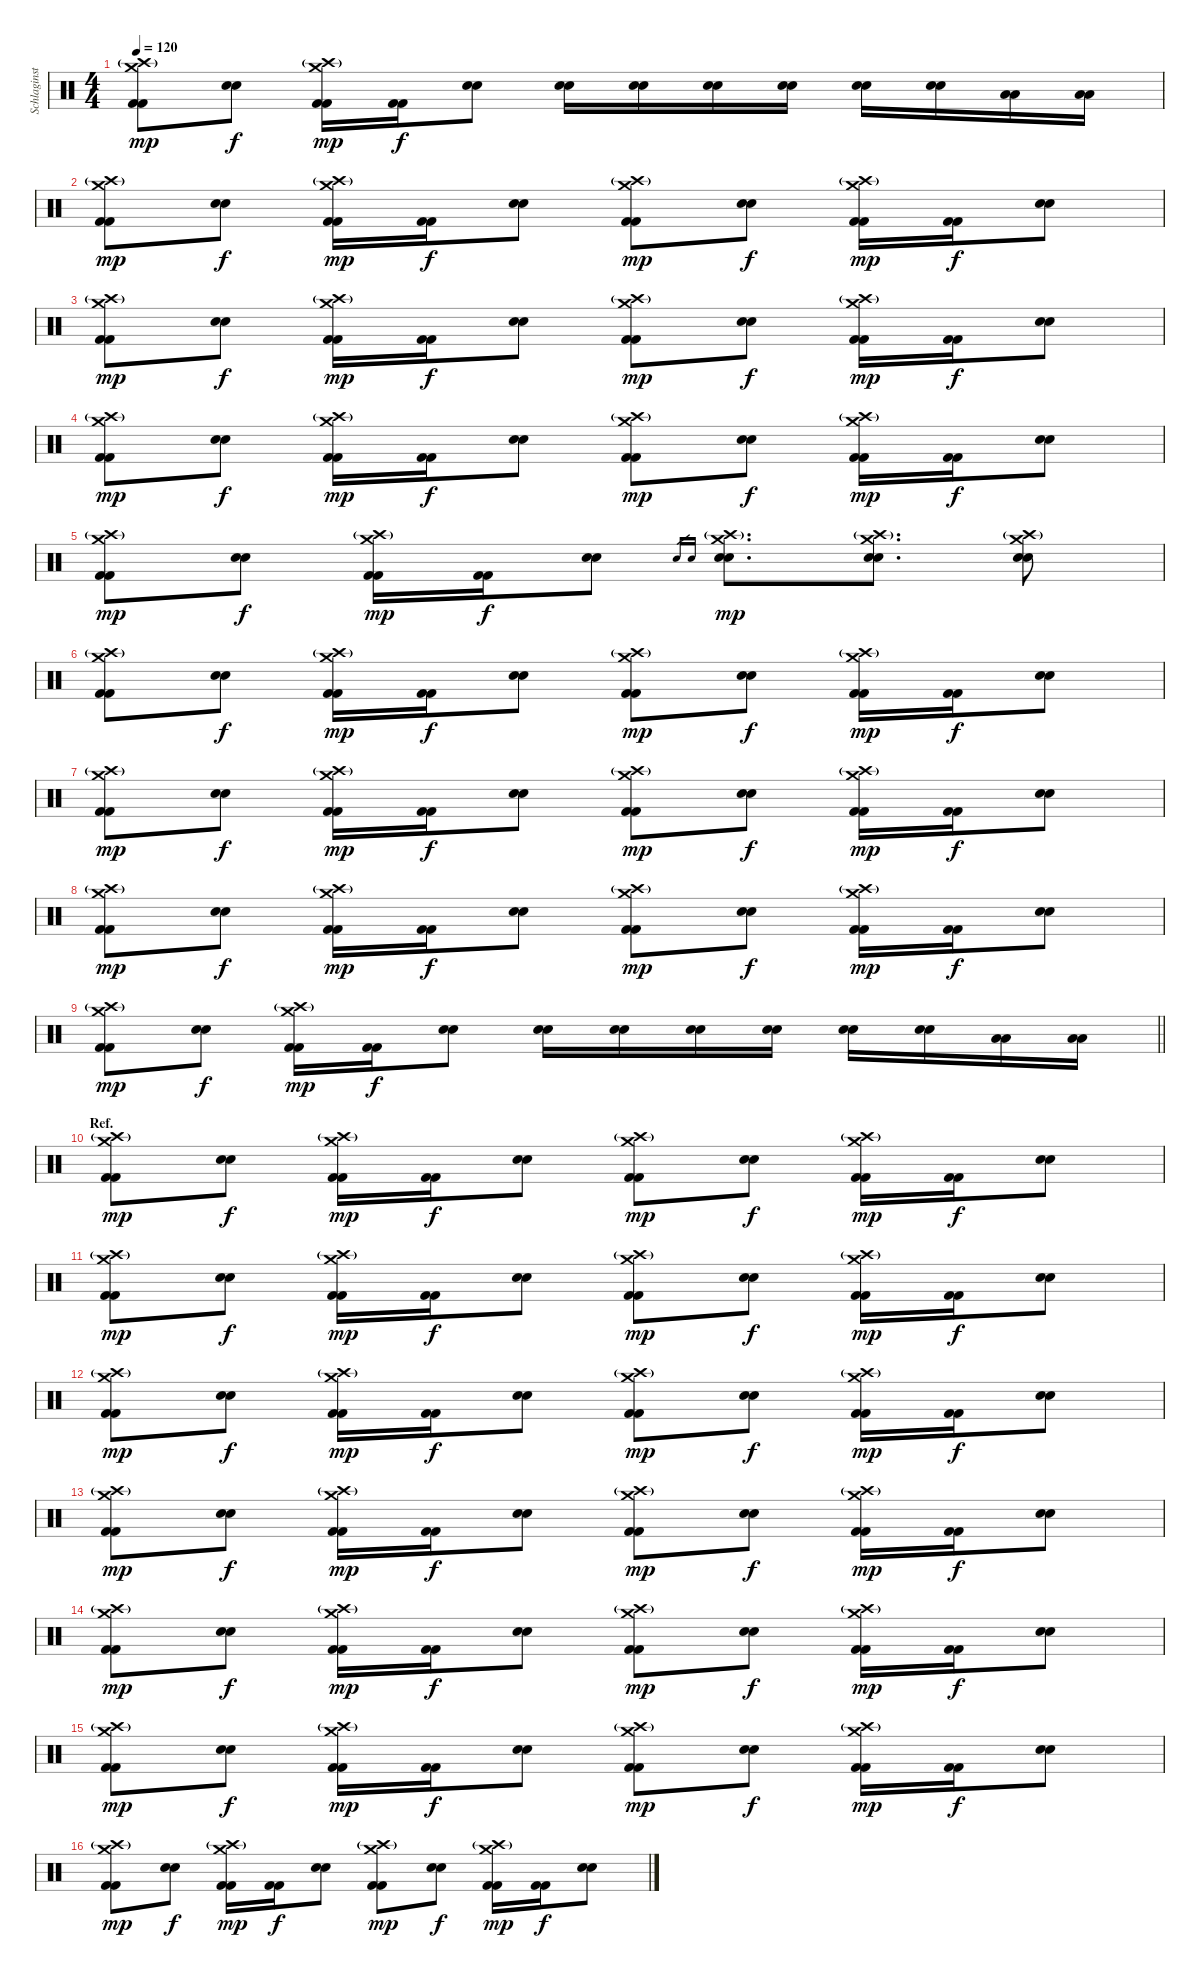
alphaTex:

\track ("Schlaginstrumente - Auswahl" "Schlaginst") {instrument percussion}
\staff {score}
\articulation defaults
\ts (4 4)
\tempo 120
\clef neutral
\ks c
("Crash high (hit)"{g} "Crash medium (hit)" "Kick (hit) 2" "Kick (hit) 2").8{dy mp} ("Electric Snare (hit)" "Electric Snare (hit)").8{dy f} ("Crash high (hit)"{g} "Crash medium (hit)" "Kick (hit) 2" "Kick (hit) 2").16{dy mp} ("Kick (hit) 2" "Kick (hit) 2").16{dy f} ("Electric Snare (hit)" "Electric Snare (hit)").8 ("Electric Snare (hit)" "Electric Snare (hit)").16 ("Electric Snare (hit)" "Electric Snare (hit)").16 ("Electric Snare (hit)" "Electric Snare (hit)").16 ("Electric Snare (hit)" "Electric Snare (hit)").16 ("Snare (hit) 2" "Snare (hit) 2").16 ("Snare (hit) 2" "Snare (hit) 2").16 ("Low Tom (hit)" "Low Tom (hit)").16 ("Low Tom (hit)" "Low Tom (hit)").16 |
("Crash high (hit)"{g} "Crash medium (hit)" "Kick (hit) 2" "Kick (hit) 2").8{dy mp} ("Electric Snare (hit)" "Electric Snare (hit)").8{dy f} ("Crash high (hit)"{g} "Crash medium (hit)" "Kick (hit) 2" "Kick (hit) 2").16{dy mp} ("Kick (hit) 2" "Kick (hit) 2").16{dy f} ("Electric Snare (hit)" "Electric Snare (hit)").8 ("Crash high (hit)"{g} "Crash medium (hit)" "Kick (hit) 2" "Kick (hit) 2").8{dy mp} ("Electric Snare (hit)" "Electric Snare (hit)").8{dy f} ("Crash high (hit)"{g} "Crash medium (hit)" "Kick (hit) 2" "Kick (hit) 2").16{dy mp} ("Kick (hit) 2" "Kick (hit) 2").16{dy f} ("Electric Snare (hit)" "Electric Snare (hit)").8 |
("Crash high (hit)"{g} "Crash medium (hit)" "Kick (hit) 2" "Kick (hit) 2").8{dy mp} ("Electric Snare (hit)" "Electric Snare (hit)").8{dy f} ("Crash high (hit)"{g} "Crash medium (hit)" "Kick (hit) 2" "Kick (hit) 2").16{dy mp} ("Kick (hit) 2" "Kick (hit) 2").16{dy f} ("Electric Snare (hit)" "Electric Snare (hit)").8 ("Crash high (hit)"{g} "Crash medium (hit)" "Kick (hit) 2" "Kick (hit) 2").8{dy mp} ("Electric Snare (hit)" "Electric Snare (hit)").8{dy f} ("Crash high (hit)"{g} "Crash medium (hit)" "Kick (hit) 2" "Kick (hit) 2").16{dy mp} ("Kick (hit) 2" "Kick (hit) 2").16{dy f} ("Electric Snare (hit)" "Electric Snare (hit)").8 |
("Crash high (hit)"{g} "Crash medium (hit)" "Kick (hit) 2" "Kick (hit) 2").8{dy mp} ("Electric Snare (hit)" "Electric Snare (hit)").8{dy f} ("Crash high (hit)"{g} "Crash medium (hit)" "Kick (hit) 2" "Kick (hit) 2").16{dy mp} ("Kick (hit) 2" "Kick (hit) 2").16{dy f} ("Electric Snare (hit)" "Electric Snare (hit)").8 ("Crash high (hit)"{g} "Crash medium (hit)" "Kick (hit) 2" "Kick (hit) 2").8{dy mp} ("Electric Snare (hit)" "Electric Snare (hit)").8{dy f} ("Crash high (hit)"{g} "Crash medium (hit)" "Kick (hit) 2" "Kick (hit) 2").16{dy mp} ("Kick (hit) 2" "Kick (hit) 2").16{dy f} ("Electric Snare (hit)" "Electric Snare (hit)").8 |
("Crash high (hit)"{g} "Crash medium (hit)" "Kick (hit) 2" "Kick (hit) 2").8{dy mp} ("Electric Snare (hit)" "Electric Snare (hit)").8{dy f} ("Crash high (hit)"{g} "Crash medium (hit)" "Kick (hit) 2" "Kick (hit) 2").16{dy mp} ("Kick (hit) 2" "Kick (hit) 2").16{dy f} ("Electric Snare (hit)" "Electric Snare (hit)").8 "Electric Snare (hit)".16{gr} "Electric Snare (hit)".16{gr} ("Crash high (hit)"{g} "Crash medium (hit)" "Electric Snare (hit)" "Electric Snare (hit)").8{d dy mp} ("Crash high (hit)"{g} "Crash medium (hit)" "Electric Snare (hit)" "Electric Snare (hit)").8{d} ("Crash high (hit)"{g} "Crash medium (hit)" "Electric Snare (hit)" "Electric Snare (hit)").8 |
("Crash high (hit)"{g} "Crash medium (hit)" "Kick (hit) 2" "Kick (hit) 2").8 ("Electric Snare (hit)" "Electric Snare (hit)").8{dy f} ("Crash high (hit)"{g} "Crash medium (hit)" "Kick (hit) 2" "Kick (hit) 2").16{dy mp} ("Kick (hit) 2" "Kick (hit) 2").16{dy f} ("Electric Snare (hit)" "Electric Snare (hit)").8 ("Crash high (hit)"{g} "Crash medium (hit)" "Kick (hit) 2" "Kick (hit) 2").8{dy mp} ("Electric Snare (hit)" "Electric Snare (hit)").8{dy f} ("Crash high (hit)"{g} "Crash medium (hit)" "Kick (hit) 2" "Kick (hit) 2").16{dy mp} ("Kick (hit) 2" "Kick (hit) 2").16{dy f} ("Electric Snare (hit)" "Electric Snare (hit)").8 |
("Crash high (hit)"{g} "Crash medium (hit)" "Kick (hit) 2" "Kick (hit) 2").8{dy mp} ("Electric Snare (hit)" "Electric Snare (hit)").8{dy f} ("Crash high (hit)"{g} "Crash medium (hit)" "Kick (hit) 2" "Kick (hit) 2").16{dy mp} ("Kick (hit) 2" "Kick (hit) 2").16{dy f} ("Electric Snare (hit)" "Electric Snare (hit)").8 ("Crash high (hit)"{g} "Crash medium (hit)" "Kick (hit) 2" "Kick (hit) 2").8{dy mp} ("Electric Snare (hit)" "Electric Snare (hit)").8{dy f} ("Crash high (hit)"{g} "Crash medium (hit)" "Kick (hit) 2" "Kick (hit) 2").16{dy mp} ("Kick (hit) 2" "Kick (hit) 2").16{dy f} ("Electric Snare (hit)" "Electric Snare (hit)").8 |
("Crash high (hit)"{g} "Crash medium (hit)" "Kick (hit) 2" "Kick (hit) 2").8{dy mp} ("Electric Snare (hit)" "Electric Snare (hit)").8{dy f} ("Crash high (hit)"{g} "Crash medium (hit)" "Kick (hit) 2" "Kick (hit) 2").16{dy mp} ("Kick (hit) 2" "Kick (hit) 2").16{dy f} ("Electric Snare (hit)" "Electric Snare (hit)").8 ("Crash high (hit)"{g} "Crash medium (hit)" "Kick (hit) 2" "Kick (hit) 2").8{dy mp} ("Electric Snare (hit)" "Electric Snare (hit)").8{dy f} ("Crash high (hit)"{g} "Crash medium (hit)" "Kick (hit) 2" "Kick (hit) 2").16{dy mp} ("Kick (hit) 2" "Kick (hit) 2").16{dy f} ("Electric Snare (hit)" "Electric Snare (hit)").8 |
\barLineRight lightlight
("Crash high (hit)"{g} "Crash medium (hit)" "Kick (hit) 2" "Kick (hit) 2").8{dy mp} ("Electric Snare (hit)" "Electric Snare (hit)").8{dy f} ("Crash high (hit)"{g} "Crash medium (hit)" "Kick (hit) 2" "Kick (hit) 2").16{dy mp} ("Kick (hit) 2" "Kick (hit) 2").16{dy f} ("Electric Snare (hit)" "Electric Snare (hit)").8 ("Electric Snare (hit)" "Electric Snare (hit)").16 ("Electric Snare (hit)" "Electric Snare (hit)").16 ("Electric Snare (hit)" "Electric Snare (hit)").16 ("Electric Snare (hit)" "Electric Snare (hit)").16 ("Snare (hit) 2" "Snare (hit) 2").16 ("Snare (hit) 2" "Snare (hit) 2").16 ("Low Tom (hit)" "Low Tom (hit)").16 ("Low Tom (hit)" "Low Tom (hit)").16 |
\section ("" "Ref.")
("Crash high (hit)"{g} "Crash medium (hit)" "Kick (hit) 2" "Kick (hit) 2").8{dy mp} ("Electric Snare (hit)" "Electric Snare (hit)").8{dy f} ("Crash high (hit)"{g} "Crash medium (hit)" "Kick (hit) 2" "Kick (hit) 2").16{dy mp} ("Kick (hit) 2" "Kick (hit) 2").16{dy f} ("Electric Snare (hit)" "Electric Snare (hit)").8 ("Crash high (hit)"{g} "Crash medium (hit)" "Kick (hit) 2" "Kick (hit) 2").8{dy mp} ("Electric Snare (hit)" "Electric Snare (hit)").8{dy f} ("Crash high (hit)"{g} "Crash medium (hit)" "Kick (hit) 2" "Kick (hit) 2").16{dy mp} ("Kick (hit) 2" "Kick (hit) 2").16{dy f} ("Electric Snare (hit)" "Electric Snare (hit)").8 |
("Crash high (hit)"{g} "Crash medium (hit)" "Kick (hit) 2" "Kick (hit) 2").8{dy mp} ("Electric Snare (hit)" "Electric Snare (hit)").8{dy f} ("Crash high (hit)"{g} "Crash medium (hit)" "Kick (hit) 2" "Kick (hit) 2").16{dy mp} ("Kick (hit) 2" "Kick (hit) 2").16{dy f} ("Electric Snare (hit)" "Electric Snare (hit)").8 ("Crash high (hit)"{g} "Crash medium (hit)" "Kick (hit) 2" "Kick (hit) 2").8{dy mp} ("Electric Snare (hit)" "Electric Snare (hit)").8{dy f} ("Crash high (hit)"{g} "Crash medium (hit)" "Kick (hit) 2" "Kick (hit) 2").16{dy mp} ("Kick (hit) 2" "Kick (hit) 2").16{dy f} ("Electric Snare (hit)" "Electric Snare (hit)").8 |
("Crash high (hit)"{g} "Crash medium (hit)" "Kick (hit) 2" "Kick (hit) 2").8{dy mp} ("Electric Snare (hit)" "Electric Snare (hit)").8{dy f} ("Crash high (hit)"{g} "Crash medium (hit)" "Kick (hit) 2" "Kick (hit) 2").16{dy mp} ("Kick (hit) 2" "Kick (hit) 2").16{dy f} ("Electric Snare (hit)" "Electric Snare (hit)").8 ("Crash high (hit)"{g} "Crash medium (hit)" "Kick (hit) 2" "Kick (hit) 2").8{dy mp} ("Electric Snare (hit)" "Electric Snare (hit)").8{dy f} ("Crash high (hit)"{g} "Crash medium (hit)" "Kick (hit) 2" "Kick (hit) 2").16{dy mp} ("Kick (hit) 2" "Kick (hit) 2").16{dy f} ("Electric Snare (hit)" "Electric Snare (hit)").8 |
("Crash high (hit)"{g} "Crash medium (hit)" "Kick (hit) 2" "Kick (hit) 2").8{dy mp} ("Electric Snare (hit)" "Electric Snare (hit)").8{dy f} ("Crash high (hit)"{g} "Crash medium (hit)" "Kick (hit) 2" "Kick (hit) 2").16{dy mp} ("Kick (hit) 2" "Kick (hit) 2").16{dy f} ("Electric Snare (hit)" "Electric Snare (hit)").8 ("Crash high (hit)"{g} "Crash medium (hit)" "Kick (hit) 2" "Kick (hit) 2").8{dy mp} ("Electric Snare (hit)" "Electric Snare (hit)").8{dy f} ("Crash high (hit)"{g} "Crash medium (hit)" "Kick (hit) 2" "Kick (hit) 2").16{dy mp} ("Kick (hit) 2" "Kick (hit) 2").16{dy f} ("Electric Snare (hit)" "Electric Snare (hit)").8 |
("Crash high (hit)"{g} "Crash medium (hit)" "Kick (hit) 2" "Kick (hit) 2").8{dy mp} ("Electric Snare (hit)" "Electric Snare (hit)").8{dy f} ("Crash high (hit)"{g} "Crash medium (hit)" "Kick (hit) 2" "Kick (hit) 2").16{dy mp} ("Kick (hit) 2" "Kick (hit) 2").16{dy f} ("Electric Snare (hit)" "Electric Snare (hit)").8 ("Crash high (hit)"{g} "Crash medium (hit)" "Kick (hit) 2" "Kick (hit) 2").8{dy mp} ("Electric Snare (hit)" "Electric Snare (hit)").8{dy f} ("Crash high (hit)"{g} "Crash medium (hit)" "Kick (hit) 2" "Kick (hit) 2").16{dy mp} ("Kick (hit) 2" "Kick (hit) 2").16{dy f} ("Electric Snare (hit)" "Electric Snare (hit)").8 |
("Crash high (hit)"{g} "Crash medium (hit)" "Kick (hit) 2" "Kick (hit) 2").8{dy mp} ("Electric Snare (hit)" "Electric Snare (hit)").8{dy f} ("Crash high (hit)"{g} "Crash medium (hit)" "Kick (hit) 2" "Kick (hit) 2").16{dy mp} ("Kick (hit) 2" "Kick (hit) 2").16{dy f} ("Electric Snare (hit)" "Electric Snare (hit)").8 ("Crash high (hit)"{g} "Crash medium (hit)" "Kick (hit) 2" "Kick (hit) 2").8{dy mp} ("Electric Snare (hit)" "Electric Snare (hit)").8{dy f} ("Crash high (hit)"{g} "Crash medium (hit)" "Kick (hit) 2" "Kick (hit) 2").16{dy mp} ("Kick (hit) 2" "Kick (hit) 2").16{dy f} ("Electric Snare (hit)" "Electric Snare (hit)").8 |
("Crash high (hit)"{g} "Crash medium (hit)" "Kick (hit) 2" "Kick (hit) 2").8{dy mp} ("Electric Snare (hit)" "Electric Snare (hit)").8{dy f} ("Crash high (hit)"{g} "Crash medium (hit)" "Kick (hit) 2" "Kick (hit) 2").16{dy mp} ("Kick (hit) 2" "Kick (hit) 2").16{dy f} ("Electric Snare (hit)" "Electric Snare (hit)").8 ("Crash high (hit)"{g} "Crash medium (hit)" "Kick (hit) 2" "Kick (hit) 2").8{dy mp} ("Electric Snare (hit)" "Electric Snare (hit)").8{dy f} ("Crash high (hit)"{g} "Crash medium (hit)" "Kick (hit) 2" "Kick (hit) 2").16{dy mp} ("Kick (hit) 2" "Kick (hit) 2").16{dy f} ("Electric Snare (hit)" "Electric Snare (hit)").8
